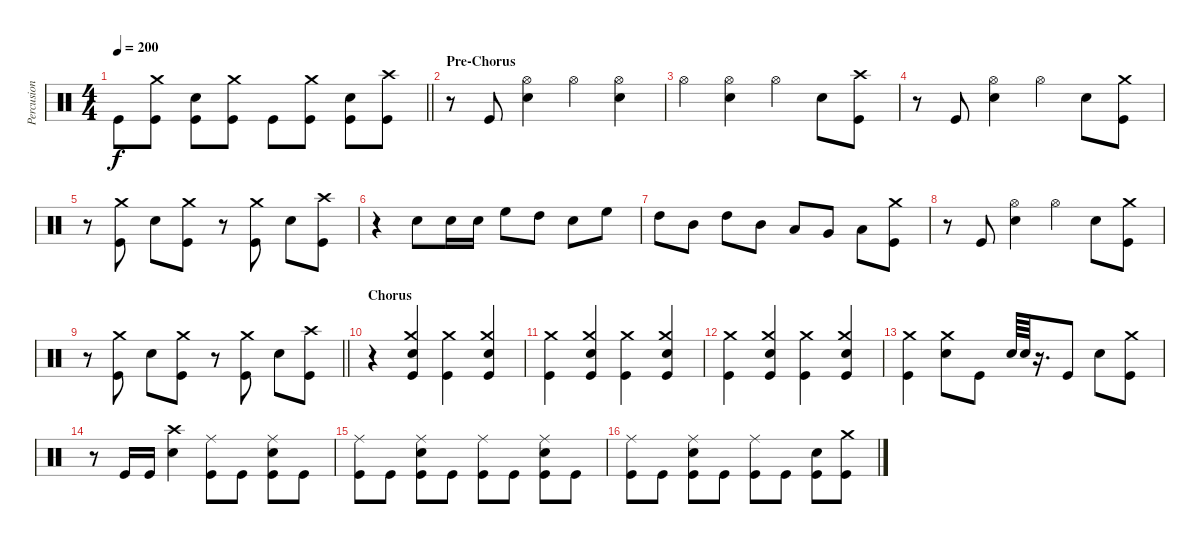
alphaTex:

\track ("Percusion" "Percusion") {instrument percussion}
\staff {score}
\articulation defaults
\ts (4 4)
\tempo 200
\clef neutral
\barLineRight lightlight
\ks c "Kick (hit)".8{dy f}
("Kick (hit)" "Crash medium (hit)").8 ("Kick (hit)" "Snare (hit) 2").8 ("Kick (hit)" "Crash medium (hit)").8 "Kick (hit)".8 ("Kick (hit)" "Crash medium (hit)").8 ("Kick (hit)" "Snare (hit) 2").8 ("Kick (hit)" "Crash high (hit)").8 |
\section ("" "Pre-Chorus")
r.8 "Kick (hit)".8 ("Hi-Hat (open)" "Snare (hit) 2").4 "Hi-Hat (open)".4 ("Hi-Hat (open)" "Snare (hit) 2").4 |
"Hi-Hat (open)".4 ("Snare (hit) 2" "Hi-Hat (open)").4 "Hi-Hat (open)".4 "Snare (hit) 2".8 ("Kick (hit)" "Crash high (hit)").8 |
r.8 "Kick (hit)".8 ("Hi-Hat (open)" "Snare (hit) 2").4 "Hi-Hat (open)".4 "Snare (hit) 2".8 ("Crash medium (hit)" "Kick (hit)").8 |
r.8 ("Kick (hit)" "Crash medium (hit)").8 "Snare (hit) 2".8 ("Kick (hit)" "Crash medium (hit)").8 r.8 ("Kick (hit)" "Crash medium (hit)").8 "Snare (hit) 2".8 ("Kick (hit)" "Crash high (hit)").8 |
r.4 "Snare (hit) 2".8 "Snare (hit) 2".16 "Snare (hit) 2".16 "High Floor Tom (hit)".8 "High Tom (hit)".8 "Snare (hit) 2".8 "High Floor Tom (hit)".8 |
"High Tom (hit)".8 "Mid Tom (hit)".8 "High Tom (hit)".8 "Mid Tom (hit)".8 "Low Tom (hit)".8 "Very Low Tom (hit)".8 "Low Floor Tom (hit)".8 ("Crash medium (hit)" "Kick (hit)").8 |
r.8 "Kick (hit)".8 ("Hi-Hat (open)" "Snare (hit) 2").4 "Hi-Hat (open)".4 "Snare (hit) 2".8 ("Crash medium (hit)" "Kick (hit)").8 |
\barLineRight lightlight
r.8 ("Kick (hit)" "Crash medium (hit)").8 "Snare (hit) 2".8 ("Kick (hit)" "Crash medium (hit)").8 r.8 ("Kick (hit)" "Crash medium (hit)").8 "Snare (hit) 2".8 ("Kick (hit)" "Crash high (hit)").8 |
\section ("" "Chorus")
r.4 ("Crash medium (hit)" "Kick (hit)" "Snare (hit) 2").4 ("Kick (hit)" "Crash medium (hit)").4 ("Crash medium (hit)" "Kick (hit)" "Snare (hit) 2").4 |
("Kick (hit)" "Crash medium (hit)").4 ("Crash medium (hit)" "Kick (hit)" "Snare (hit) 2").4 ("Kick (hit)" "Crash medium (hit)").4 ("Crash medium (hit)" "Kick (hit)" "Snare (hit) 2").4 |
("Kick (hit)" "Crash medium (hit)").4 ("Crash medium (hit)" "Kick (hit)" "Snare (hit) 2").4 ("Kick (hit)" "Crash medium (hit)").4 ("Crash medium (hit)" "Kick (hit)" "Snare (hit) 2").4 |
("Kick (hit)" "Crash medium (hit)").4 ("Crash medium (hit)" "Snare (hit) 2").8 "Kick (hit)".8 "Snare (hit) 2".64 "Snare (hit) 2".64 r.16{d} "Kick (hit)".8 "Snare (hit) 2".8 ("Crash medium (hit)" "Kick (hit)").8 |
r.8 "Kick (hit)".16 "Kick (hit)".16 ("Snare (hit) 2" "Crash high (hit)").4 ("Kick (hit)" "Ride (middle)").8 "Kick (hit)".8 ("Kick (hit)" "Ride (middle)" "Snare (hit) 2").8 "Kick (hit)".8 |
("Kick (hit)" "Ride (middle)").8 "Kick (hit)".8 ("Kick (hit)" "Ride (middle)" "Snare (hit) 2").8 "Kick (hit)".8 ("Kick (hit)" "Ride (middle)").8 "Kick (hit)".8 ("Kick (hit)" "Ride (middle)" "Snare (hit) 2").8 "Kick (hit)".8 |
("Kick (hit)" "Ride (middle)").8 "Kick (hit)".8 ("Kick (hit)" "Ride (middle)" "Snare (hit) 2").8 "Kick (hit)".8 ("Kick (hit)" "Ride (middle)").8 "Kick (hit)".8 ("Kick (hit)" "Snare (hit) 2").8 ("Kick (hit)" "Crash medium (hit)").8
